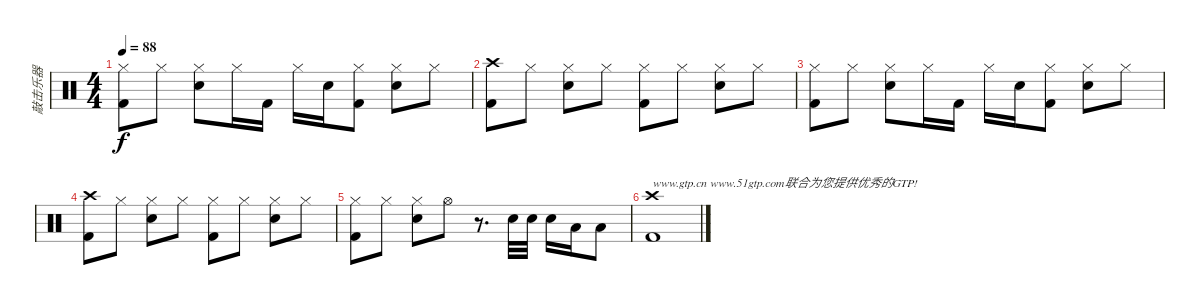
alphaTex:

\track ("敲击乐器" "敲击乐器") {instrument percussion}
\staff {score}
\articulation defaults
\ts (4 4)
\tempo 88
\clef neutral
\ks c
("Hi-Hat (closed)" "Kick (hit) 2").8{dy f} "Hi-Hat (closed)".8 ("Hi-Hat (closed)" "Electric Snare (hit)").8 "Hi-Hat (closed)".16 "Kick (hit) 2".16 "Hi-Hat (closed)".16 "Electric Snare (hit)".16 ("Hi-Hat (closed)" "Kick (hit) 2").8 ("Hi-Hat (closed)" "Electric Snare (hit)").8 "Hi-Hat (closed)".8 |
("Crash high (hit)" "Kick (hit) 2").8 "Hi-Hat (closed)".8 ("Hi-Hat (closed)" "Electric Snare (hit)").8 "Hi-Hat (closed)".8 ("Hi-Hat (closed)" "Kick (hit) 2").8 "Hi-Hat (closed)".8 ("Hi-Hat (closed)" "Electric Snare (hit)").8 "Hi-Hat (closed)".8 |
("Hi-Hat (closed)" "Kick (hit) 2").8 "Hi-Hat (closed)".8 ("Hi-Hat (closed)" "Electric Snare (hit)").8 "Hi-Hat (closed)".16 "Kick (hit) 2".16 "Hi-Hat (closed)".16 "Electric Snare (hit)".16 ("Hi-Hat (closed)" "Kick (hit) 2").8 ("Hi-Hat (closed)" "Electric Snare (hit)").8 "Hi-Hat (closed)".8 |
("Crash high (hit)" "Kick (hit) 2").8 "Hi-Hat (closed)".8 ("Hi-Hat (closed)" "Electric Snare (hit)").8 "Hi-Hat (closed)".8 ("Hi-Hat (closed)" "Kick (hit) 2").8 "Hi-Hat (closed)".8 ("Hi-Hat (closed)" "Electric Snare (hit)").8 "Hi-Hat (closed)".8 |
("Hi-Hat (closed)" "Kick (hit) 2").8 "Hi-Hat (closed)".8 ("Hi-Hat (closed)" "Electric Snare (hit)").8 "Hi-Hat (open)".8 r.8{d} "Electric Snare (hit)".32 "Electric Snare (hit)".32 "Electric Snare (hit)".16 "Low Floor Tom (hit)".16 "Low Tom (hit)".8 |
("Crash high (hit)" "Kick (hit) 2").1{txt "www.gtp.cn www.51gtp.com联合为您提供优秀的GTP!"}
